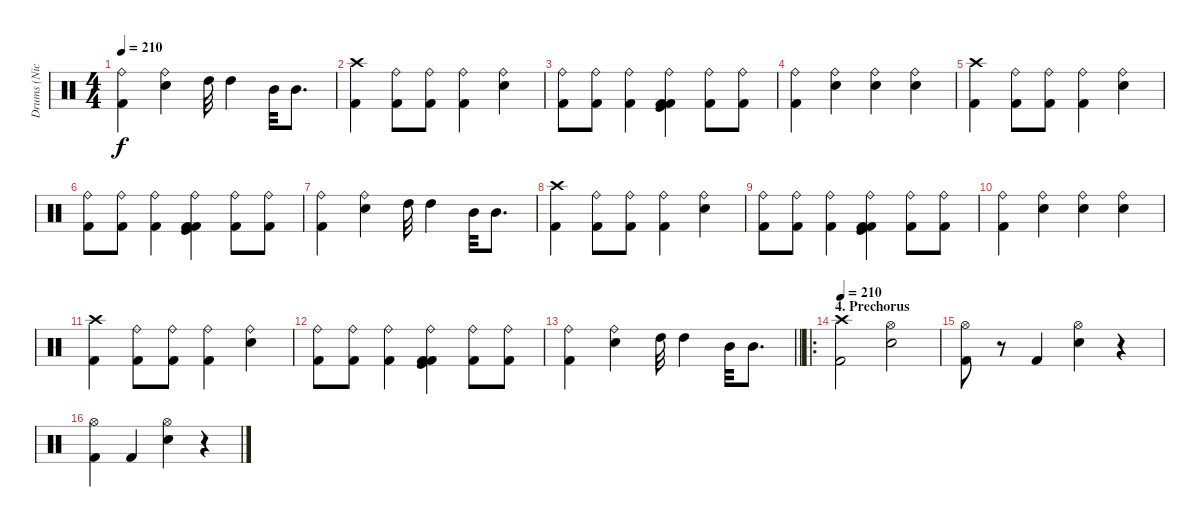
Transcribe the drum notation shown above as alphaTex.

\track ("Drums (Nicko McBrain)" "Drums (Nic") {instrument percussion}
\staff {score}
\articulation defaults
\ts (4 4)
\tempo 210
\clef neutral
\ks c
("Ride (bell)" "Kick (hit) 2").4{dy f} ("Ride (bell)" "Electric Snare (hit)").4 "High Tom (hit)".32 "High Tom (hit)".4 "Mid Tom (hit)".32 "Mid Tom (hit)".8{d} |
("Crash high (hit)" "Kick (hit) 2").4 ("Ride (bell)" "Kick (hit) 2").8 ("Ride (bell)" "Kick (hit) 2").8 ("Ride (bell)" "Kick (hit) 2").4 ("Ride (bell)" "Electric Snare (hit)").4 |
("Ride (bell)" "Kick (hit) 2").8 ("Ride (bell)" "Kick (hit) 2").8 ("Ride (bell)" "Kick (hit) 2").4 ("Ride (bell)" "Kick (hit) 2" "Kick (hit)" "Kick (hit) 2").4 ("Ride (bell)" "Kick (hit) 2").8 ("Ride (bell)" "Kick (hit) 2").8 |
("Ride (bell)" "Kick (hit) 2").4 ("Ride (bell)" "Electric Snare (hit)").4 ("Ride (bell)" "Electric Snare (hit)").4 ("Ride (bell)" "Electric Snare (hit)").4 |
("Crash high (hit)" "Kick (hit) 2").4 ("Ride (bell)" "Kick (hit) 2").8 ("Ride (bell)" "Kick (hit) 2").8 ("Ride (bell)" "Kick (hit) 2").4 ("Ride (bell)" "Electric Snare (hit)").4 |
("Ride (bell)" "Kick (hit) 2").8 ("Ride (bell)" "Kick (hit) 2").8 ("Ride (bell)" "Kick (hit) 2").4 ("Ride (bell)" "Kick (hit) 2" "Kick (hit)" "Kick (hit) 2").4 ("Ride (bell)" "Kick (hit) 2").8 ("Ride (bell)" "Kick (hit) 2").8 |
("Ride (bell)" "Kick (hit) 2").4 ("Ride (bell)" "Electric Snare (hit)").4 "High Tom (hit)".32 "High Tom (hit)".4 "Mid Tom (hit)".32 "Mid Tom (hit)".8{d} |
("Crash high (hit)" "Kick (hit) 2").4 ("Ride (bell)" "Kick (hit) 2").8 ("Ride (bell)" "Kick (hit) 2").8 ("Ride (bell)" "Kick (hit) 2").4 ("Ride (bell)" "Electric Snare (hit)").4 |
("Ride (bell)" "Kick (hit) 2").8 ("Ride (bell)" "Kick (hit) 2").8 ("Ride (bell)" "Kick (hit) 2").4 ("Ride (bell)" "Kick (hit) 2" "Kick (hit)" "Kick (hit) 2").4 ("Ride (bell)" "Kick (hit) 2").8 ("Ride (bell)" "Kick (hit) 2").8 |
("Ride (bell)" "Kick (hit) 2").4 ("Ride (bell)" "Electric Snare (hit)").4 ("Ride (bell)" "Electric Snare (hit)").4 ("Ride (bell)" "Electric Snare (hit)").4 |
("Crash high (hit)" "Kick (hit) 2").4 ("Ride (bell)" "Kick (hit) 2").8 ("Ride (bell)" "Kick (hit) 2").8 ("Ride (bell)" "Kick (hit) 2").4 ("Ride (bell)" "Electric Snare (hit)").4 |
("Ride (bell)" "Kick (hit) 2").8 ("Ride (bell)" "Kick (hit) 2").8 ("Ride (bell)" "Kick (hit) 2").4 ("Ride (bell)" "Kick (hit) 2" "Kick (hit)" "Kick (hit) 2").4 ("Ride (bell)" "Kick (hit) 2").8 ("Ride (bell)" "Kick (hit) 2").8 |
\barLineRight lightlight
("Ride (bell)" "Kick (hit) 2").4 ("Ride (bell)" "Electric Snare (hit)").4 "High Tom (hit)".32 "High Tom (hit)".4 "Mid Tom (hit)".32 "Mid Tom (hit)".8{d} |
\ro
\section ("" "4. Prechorus")
\tempo 210
("Crash high (hit)" "Kick (hit) 2").2 ("Hi-Hat (open)" "Electric Snare (hit)").2 |
("Hi-Hat (open)" "Kick (hit) 2").8 r.8 "Kick (hit) 2".4 ("Hi-Hat (open)" "Electric Snare (hit)").4 r.4 |
("Hi-Hat (open)" "Kick (hit) 2").4 "Kick (hit) 2".4 ("Hi-Hat (open)" "Electric Snare (hit)").4 r.4
